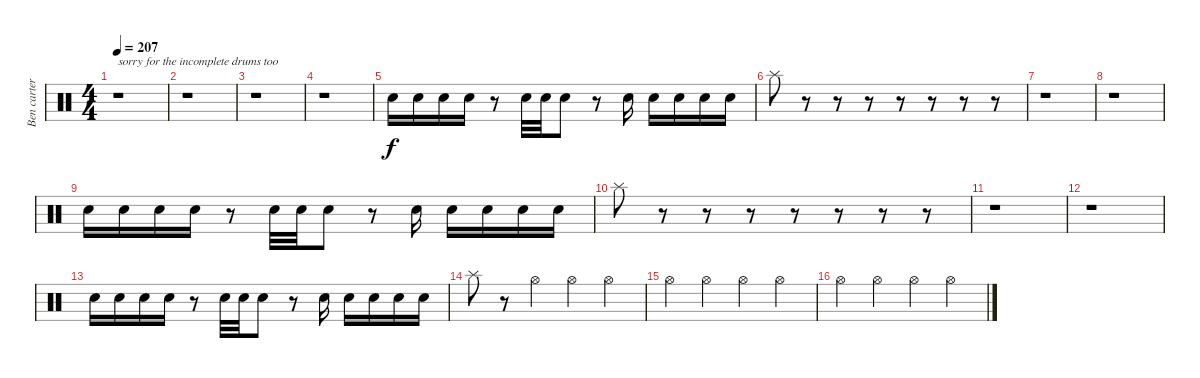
\track ("Ben carter" "Ben carter") {instrument percussion}
\staff {score}
\articulation defaults
\ts (4 4)
\tempo 207
\clef neutral
\ks c
r.1{txt "sorry for the incomplete drums too " dy f} |
r.1 |
r.1 |
r.1 |
"Electric Snare (hit)".16 "Electric Snare (hit)".16 "Electric Snare (hit)".16 "Electric Snare (hit)".16 r.8 "Electric Snare (hit)".32 "Electric Snare (hit)".32 "Electric Snare (hit)".8 r.8 "Electric Snare (hit)".16 "Electric Snare (hit)".16 "Electric Snare (hit)".16 "Electric Snare (hit)".16 "Electric Snare (hit)".16 |
"Splash (hit)".8 r.8 r.8 r.8 r.8 r.8 r.8 r.8 |
r.1 |
r.1 |
"Electric Snare (hit)".16 "Electric Snare (hit)".16 "Electric Snare (hit)".16 "Electric Snare (hit)".16 r.8 "Electric Snare (hit)".32 "Electric Snare (hit)".32 "Electric Snare (hit)".8 r.8 "Electric Snare (hit)".16 "Electric Snare (hit)".16 "Electric Snare (hit)".16 "Electric Snare (hit)".16 "Electric Snare (hit)".16 |
"Splash (hit)".8 r.8 r.8 r.8 r.8 r.8 r.8 r.8 |
r.1 |
r.1 |
"Electric Snare (hit)".16 "Electric Snare (hit)".16 "Electric Snare (hit)".16 "Electric Snare (hit)".16 r.8 "Electric Snare (hit)".32 "Electric Snare (hit)".32 "Electric Snare (hit)".8 r.8 "Electric Snare (hit)".16 "Electric Snare (hit)".16 "Electric Snare (hit)".16 "Electric Snare (hit)".16 "Electric Snare (hit)".16 |
"Splash (hit)".8 r.8 "Hi-Hat (open)".4 "Hi-Hat (open)".4 "Hi-Hat (open)".4 |
"Hi-Hat (open)".4 "Hi-Hat (open)".4 "Hi-Hat (open)".4 "Hi-Hat (open)".4 |
"Hi-Hat (open)".4 "Hi-Hat (open)".4 "Hi-Hat (open)".4 "Hi-Hat (open)".4
